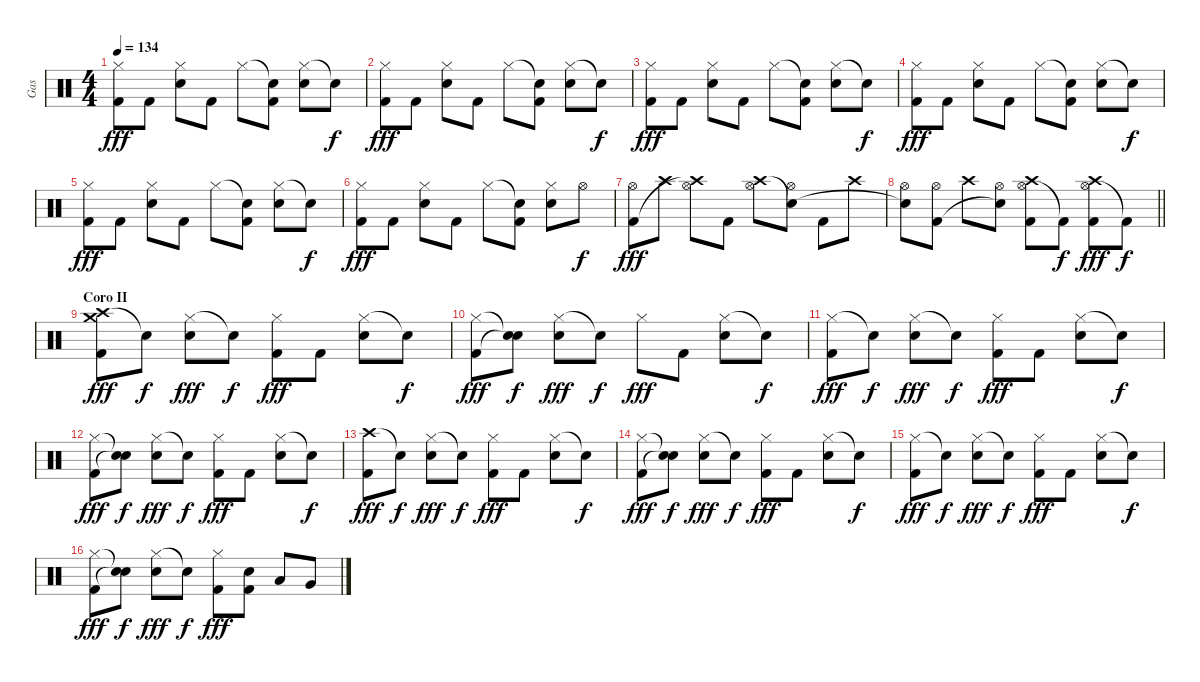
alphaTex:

\track ("Gas" "Gas") {instrument percussion}
\staff {score}
\articulation defaults
\ts (4 4)
\tempo 134
\clef neutral
\ks c
("Hi-Hat (closed)" "Kick (hit) 2").8{dy fff} "Kick (hit) 2".8 ("Hi-Hat (closed)" "Snare (hit) 2").8 "Kick (hit) 2".8 "Hi-Hat (closed)".8 ("Snare (hit)"{t} "Kick (hit) 2").8 ("Hi-Hat (closed)" "Snare (hit) 2").8 "Snare (hit)"{t}.8{dy f} |
("Hi-Hat (closed)" "Kick (hit) 2").8{dy fff} "Kick (hit) 2".8 ("Hi-Hat (closed)" "Snare (hit) 2").8 "Kick (hit) 2".8 "Hi-Hat (closed)".8 ("Snare (hit)"{t} "Kick (hit) 2").8 ("Hi-Hat (closed)" "Snare (hit) 2").8 "Snare (hit)"{t}.8{dy f} |
("Hi-Hat (closed)" "Kick (hit) 2").8{dy fff} "Kick (hit) 2".8 ("Hi-Hat (closed)" "Snare (hit) 2").8 "Kick (hit) 2".8 "Hi-Hat (closed)".8 ("Snare (hit)"{t} "Kick (hit) 2").8 ("Hi-Hat (closed)" "Snare (hit) 2").8 "Snare (hit)"{t}.8{dy f} |
("Hi-Hat (closed)" "Kick (hit) 2").8{dy fff} "Kick (hit) 2".8 ("Hi-Hat (closed)" "Snare (hit) 2").8 "Kick (hit) 2".8 "Hi-Hat (closed)".8 ("Snare (hit)"{t} "Kick (hit) 2").8 ("Hi-Hat (closed)" "Snare (hit) 2").8 "Snare (hit)"{t}.8{dy f} |
("Hi-Hat (closed)" "Kick (hit) 2").8{dy fff} "Kick (hit) 2".8 ("Hi-Hat (closed)" "Snare (hit) 2").8 "Kick (hit) 2".8 "Hi-Hat (closed)".8 ("Snare (hit)"{t} "Kick (hit) 2").8 ("Hi-Hat (closed)" "Snare (hit) 2").8 "Snare (hit)"{t}.8{dy f} |
("Hi-Hat (closed)" "Kick (hit) 2").8{dy fff} "Kick (hit) 2".8 ("Hi-Hat (closed)" "Snare (hit) 2").8 "Kick (hit) 2".8 "Hi-Hat (closed)".8 ("Snare (hit)"{t} "Kick (hit) 2").8 ("Hi-Hat (closed)" "Snare (hit) 2").8 "Hi-Hat (open)".8{dy f} |
("Hi-Hat (open)" "Kick (hit) 2").8{dy fff} "Crash high (hit)".8 ("Hi-Hat (open)" "Crash high (hit)"{t}).8 "Kick (hit) 2".8 ("Hi-Hat (open)" "Crash high (hit)").8 ("Hi-Hat (open)" "Snare (hit)"{t}).8 "Kick (hit) 2".8 "Crash high (hit)".8 |
\barLineRight lightlight
("Hi-Hat (open)" "Snare (hit)"{t}).8 ("Hi-Hat (open)" "Kick (hit) 2").8 "Crash high (hit)".8 ("Hi-Hat (open)" "Snare (hit)"{t}).8 ("Hi-Hat (open)" "Crash high (hit)" "Kick (hit) 2").8 "Kick (hit) 2"{t}.8{dy f} ("Hi-Hat (open)" "Crash high (hit)" "Kick (hit) 2").8{dy fff} "Kick (hit) 2"{t}.8{dy f} |
\section ("" "Coro II")
("Crash high (hit)" "Crash medium (hit)" "Kick (hit) 2").8{dy fff} "Snare (hit)"{t}.8{dy f} ("Hi-Hat (closed)" "Snare (hit) 2").8{dy fff} "Snare (hit)"{t}.8{dy f} ("Hi-Hat (closed)" "Kick (hit) 2").8{dy fff} "Kick (hit) 2".8 ("Hi-Hat (closed)" "Snare (hit) 2").8 "Snare (hit)"{t}.8{dy f} |
("Hi-Hat (closed)" "Kick (hit) 2").8{dy fff} ("Snare (hit)"{t} "Snare (hit)"{t}).8{dy f} ("Hi-Hat (closed)" "Snare (hit) 2").8{dy fff} "Snare (hit)"{t}.8{dy f} "Hi-Hat (closed)".8{dy fff} "Kick (hit) 2".8 ("Hi-Hat (closed)" "Snare (hit) 2").8 "Snare (hit)"{t}.8{dy f} |
("Hi-Hat (closed)" "Kick (hit) 2").8{dy fff} "Snare (hit)"{t}.8{dy f} ("Hi-Hat (closed)" "Snare (hit) 2").8{dy fff} "Snare (hit)"{t}.8{dy f} ("Hi-Hat (closed)" "Kick (hit) 2").8{dy fff} "Kick (hit) 2".8 ("Hi-Hat (closed)" "Snare (hit) 2").8 "Snare (hit)"{t}.8{dy f} |
("Hi-Hat (closed)" "Kick (hit) 2").8{dy fff} ("Snare (hit)"{t} "Snare (hit)"{t}).8{dy f} ("Hi-Hat (closed)" "Snare (hit) 2").8{dy fff} "Snare (hit)"{t}.8{dy f} ("Hi-Hat (closed)" "Kick (hit) 2").8{dy fff} "Kick (hit) 2".8 ("Hi-Hat (closed)" "Snare (hit) 2").8 "Snare (hit)"{t}.8{dy f} |
("Crash high (hit)" "Kick (hit) 2").8{dy fff} "Snare (hit)"{t}.8{dy f} ("Hi-Hat (closed)" "Snare (hit) 2").8{dy fff} "Snare (hit)"{t}.8{dy f} ("Hi-Hat (closed)" "Kick (hit) 2").8{dy fff} "Kick (hit) 2".8 ("Hi-Hat (closed)" "Snare (hit) 2").8 "Snare (hit)"{t}.8{dy f} |
("Hi-Hat (closed)" "Kick (hit) 2").8{dy fff} ("Snare (hit)"{t} "Snare (hit)"{t}).8{dy f} ("Hi-Hat (closed)" "Snare (hit) 2").8{dy fff} "Snare (hit)"{t}.8{dy f} ("Hi-Hat (closed)" "Kick (hit) 2").8{dy fff} "Kick (hit) 2".8 ("Hi-Hat (closed)" "Snare (hit) 2").8 "Snare (hit)"{t}.8{dy f} |
("Hi-Hat (closed)" "Kick (hit) 2").8{dy fff} "Snare (hit)"{t}.8{dy f} ("Hi-Hat (closed)" "Snare (hit) 2").8{dy fff} "Snare (hit)"{t}.8{dy f} ("Hi-Hat (closed)" "Kick (hit) 2").8{dy fff} "Kick (hit) 2".8 ("Hi-Hat (closed)" "Snare (hit) 2").8 "Snare (hit)"{t}.8{dy f} |
("Hi-Hat (closed)" "Kick (hit) 2").8{dy fff} ("Snare (hit)"{t} "Snare (hit)"{t}).8{dy f} ("Hi-Hat (closed)" "Snare (hit) 2").8{dy fff} "Snare (hit)"{t}.8{dy f} ("Hi-Hat (closed)" "Kick (hit) 2").8{dy fff} ("Snare (hit) 2" "Kick (hit) 2").8 "Low Tom (hit)".8 "Very Low Tom (hit)".8
